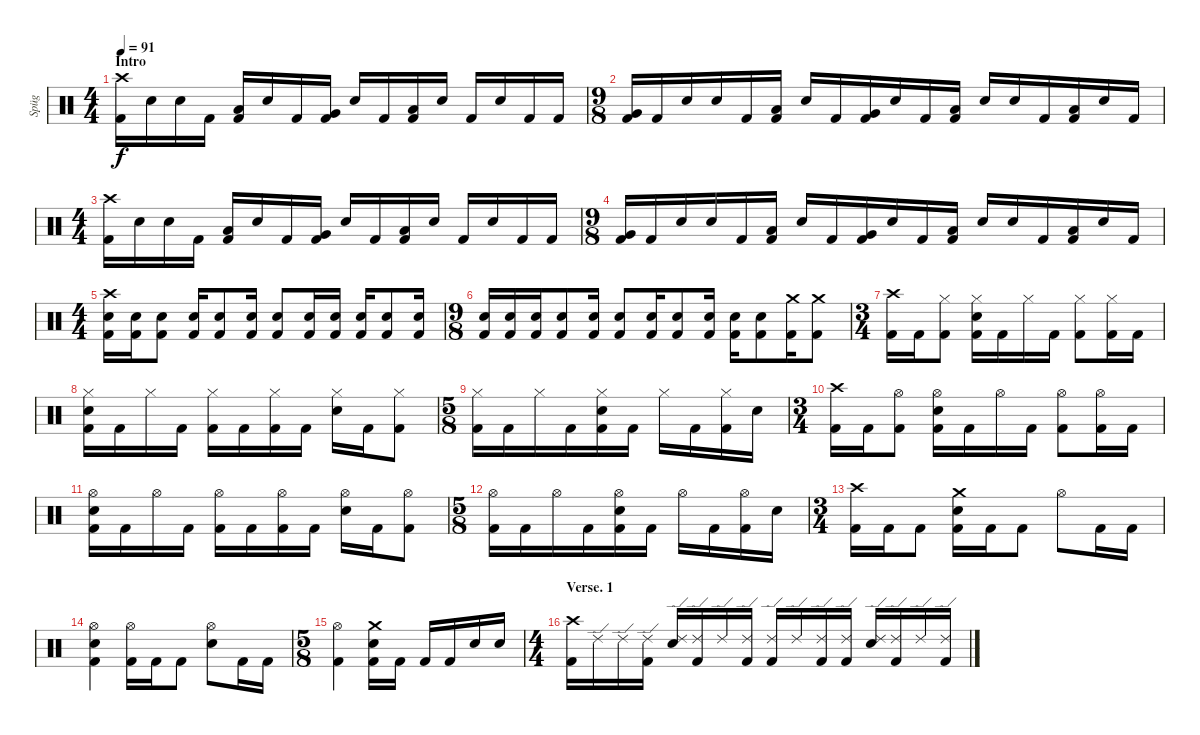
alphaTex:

\track ("Spüg" "Spüg") {instrument percussion}
\staff {score}
\articulation defaults
\ts (4 4)
\section ("" "Intro")
\tempo 91
\clef neutral
\ks c
("Crash high (hit)" "Kick (hit) 2").16{dy f} "Electric Snare (hit)".16 "Electric Snare (hit)".16 "Kick (hit) 2".16 ("Low Tom (hit)" "Kick (hit) 2").16 "Electric Snare (hit)".16 "Kick (hit) 2".16 ("Very Low Tom (hit)" "Kick (hit) 2").16 "Electric Snare (hit)".16 "Kick (hit) 2".16 ("Low Tom (hit)" "Kick (hit) 2").16 "Electric Snare (hit)".16 "Kick (hit) 2".16 "Electric Snare (hit)".16 "Kick (hit) 2".16 "Kick (hit) 2".16 |
\ts (9 8)
("Very Low Tom (hit)" "Kick (hit) 2").16 "Kick (hit) 2".16 "Electric Snare (hit)".16 "Electric Snare (hit)".16 "Kick (hit) 2".16 ("Low Floor Tom (hit)" "Kick (hit) 2").16 "Electric Snare (hit)".16 "Kick (hit) 2".16 ("Very Low Tom (hit)" "Kick (hit) 2").16 "Electric Snare (hit)".16 "Kick (hit) 2".16 ("Low Tom (hit)" "Kick (hit) 2").16 "Electric Snare (hit)".16 "Electric Snare (hit)".16 "Kick (hit) 2".16 ("Low Floor Tom (hit)" "Kick (hit) 2").16 "Electric Snare (hit)".16 "Kick (hit) 2".16 |
\ts (4 4)
("Crash high (hit)" "Kick (hit) 2").16 "Electric Snare (hit)".16 "Electric Snare (hit)".16 "Kick (hit) 2".16 ("Low Tom (hit)" "Kick (hit) 2").16 "Electric Snare (hit)".16 "Kick (hit) 2".16 ("Very Low Tom (hit)" "Kick (hit) 2").16 "Electric Snare (hit)".16 "Kick (hit) 2".16 ("Low Tom (hit)" "Kick (hit) 2").16 "Electric Snare (hit)".16 "Kick (hit) 2".16 "Electric Snare (hit)".16 "Kick (hit) 2".16 "Kick (hit) 2".16 |
\ts (9 8)
("Very Low Tom (hit)" "Kick (hit) 2").16 "Kick (hit) 2".16 "Electric Snare (hit)".16 "Electric Snare (hit)".16 "Kick (hit) 2".16 ("Low Floor Tom (hit)" "Kick (hit) 2").16 "Electric Snare (hit)".16 "Kick (hit) 2".16 ("Very Low Tom (hit)" "Kick (hit) 2").16 "Electric Snare (hit)".16 "Kick (hit) 2".16 ("Low Tom (hit)" "Kick (hit) 2").16 "Electric Snare (hit)".16 "Electric Snare (hit)".16 "Kick (hit) 2".16 ("Low Floor Tom (hit)" "Kick (hit) 2").16 "Electric Snare (hit)".16 "Kick (hit) 2".16 |
\ts (4 4)
("Crash high (hit)" "Electric Snare (hit)" "Kick (hit) 2").16 ("Electric Snare (hit)" "Kick (hit) 2").16 ("Electric Snare (hit)" "Kick (hit) 2").8 ("Electric Snare (hit)" "Kick (hit) 2").16 ("Electric Snare (hit)" "Kick (hit) 2").8 ("Electric Snare (hit)" "Kick (hit) 2").16 ("Electric Snare (hit)" "Kick (hit) 2").8 ("Electric Snare (hit)" "Kick (hit) 2").16 ("Electric Snare (hit)" "Kick (hit) 2").16 ("Electric Snare (hit)" "Kick (hit) 2").16 ("Electric Snare (hit)" "Kick (hit) 2").8 ("Electric Snare (hit)" "Kick (hit) 2").16 |
\ts (9 8)
("Electric Snare (hit)" "Kick (hit) 2").16 ("Electric Snare (hit)" "Kick (hit) 2").16 ("Electric Snare (hit)" "Kick (hit) 2").16 ("Electric Snare (hit)" "Kick (hit) 2").8 ("Electric Snare (hit)" "Kick (hit) 2").16 ("Electric Snare (hit)" "Kick (hit) 2").8 ("Electric Snare (hit)" "Kick (hit) 2").16 ("Electric Snare (hit)" "Kick (hit) 2").8 ("Electric Snare (hit)" "Kick (hit) 2").16 ("Electric Snare (hit)" "Kick (hit) 2").16 ("Electric Snare (hit)" "Kick (hit) 2").8 ("Crash medium (hit)" "Kick (hit) 2").16 ("Crash medium (hit)" "Kick (hit) 2").8 |
\ts (3 4)
("Crash high (hit)" "Kick (hit) 2").16 "Kick (hit) 2".16 ("Hi-Hat (closed)" "Kick (hit) 2").8 ("Hi-Hat (closed)" "Electric Snare (hit)" "Kick (hit) 2").16 "Kick (hit) 2".16 "Hi-Hat (closed)".16 "Kick (hit) 2".16 ("Hi-Hat (closed)" "Kick (hit) 2").8 ("Hi-Hat (closed)" "Kick (hit) 2").16 "Kick (hit) 2".16 |
("Hi-Hat (closed)" "Electric Snare (hit)" "Kick (hit) 2").16 "Kick (hit) 2".16 "Hi-Hat (closed)".16 "Kick (hit) 2".16 ("Hi-Hat (closed)" "Kick (hit) 2").16 "Kick (hit) 2".16 ("Hi-Hat (closed)" "Kick (hit) 2").16 "Kick (hit) 2".16 ("Hi-Hat (closed)" "Electric Snare (hit)").16 "Kick (hit) 2".16 ("Hi-Hat (closed)" "Kick (hit) 2").8 |
\ts (5 8)
("Hi-Hat (closed)" "Kick (hit) 2").16 "Kick (hit) 2".16 "Hi-Hat (closed)".16 "Kick (hit) 2".16 ("Hi-Hat (closed)" "Electric Snare (hit)" "Kick (hit) 2").16 "Kick (hit) 2".16 "Hi-Hat (closed)".16 "Kick (hit) 2".16 ("Hi-Hat (closed)" "Kick (hit) 2").16 "Electric Snare (hit)".16 |
\ts (3 4)
("Crash high (hit)" "Kick (hit) 2").16 "Kick (hit) 2".16 ("Hi-Hat (open)" "Kick (hit) 2").8 ("Hi-Hat (open)" "Electric Snare (hit)" "Kick (hit) 2").16 "Kick (hit) 2".16 "Hi-Hat (open)".16 "Kick (hit) 2".16 ("Hi-Hat (open)" "Kick (hit) 2").8 ("Hi-Hat (open)" "Kick (hit) 2").16 "Kick (hit) 2".16 |
("Hi-Hat (open)" "Electric Snare (hit)" "Kick (hit) 2").16 "Kick (hit) 2".16 "Hi-Hat (open)".16 "Kick (hit) 2".16 ("Hi-Hat (open)" "Kick (hit) 2").16 "Kick (hit) 2".16 ("Hi-Hat (open)" "Kick (hit) 2").16 "Kick (hit) 2".16 ("Hi-Hat (open)" "Electric Snare (hit)").16 "Kick (hit) 2".16 ("Hi-Hat (open)" "Kick (hit) 2").8 |
\ts (5 8)
("Hi-Hat (open)" "Kick (hit) 2").16 "Kick (hit) 2".16 "Hi-Hat (open)".16 "Kick (hit) 2".16 ("Hi-Hat (open)" "Electric Snare (hit)" "Kick (hit) 2").16 "Kick (hit) 2".16 "Hi-Hat (open)".16 "Kick (hit) 2".16 ("Hi-Hat (open)" "Kick (hit) 2").16 "Electric Snare (hit)".16 |
\ts (3 4)
("Crash high (hit)" "Kick (hit) 2").16 "Kick (hit) 2".16 "Kick (hit) 2".8 ("Crash medium (hit)" "Electric Snare (hit)" "Kick (hit) 2").16 "Kick (hit) 2".16 "Kick (hit) 2".8 "Hi-Hat (open)".8 "Kick (hit) 2".16 "Kick (hit) 2".16 |
("Hi-Hat (open)" "Electric Snare (hit)" "Kick (hit) 2").4 ("Hi-Hat (open)" "Kick (hit) 2").16 "Kick (hit) 2".16 "Kick (hit) 2".8 ("Hi-Hat (open)" "Electric Snare (hit)").8 "Kick (hit) 2".16 "Kick (hit) 2".16 |
\ts (5 8)
("Hi-Hat (open)" "Kick (hit) 2").4 ("Crash medium (hit)" "Electric Snare (hit)" "Kick (hit) 2").16 "Kick (hit) 2".16 "Kick (hit) 2".16 "Kick (hit) 2".16 "Electric Snare (hit)".16 "Electric Snare (hit)".16 |
\ts (4 4)
\section ("" "Verse. 1 ")
("Crash high (hit)" "Kick (hit) 2").16 "Ride (edge) 2".16 "Ride (edge) 2".16 ("Ride (edge) 2" "Kick (hit) 2").16 ("Ride (edge) 2" "Electric Snare (hit)").16 ("Ride (edge) 2" "Kick (hit) 2").16 "Ride (edge) 2".16 ("Ride (edge) 2" "Kick (hit) 2").16 ("Ride (edge) 2" "Kick (hit) 2").16 "Ride (edge) 2".16 ("Ride (edge) 2" "Kick (hit) 2").16 ("Ride (edge) 2" "Kick (hit) 2").16 ("Ride (edge) 2" "Electric Snare (hit)").16 ("Ride (edge) 2" "Kick (hit) 2").16 "Ride (edge) 2".16 ("Ride (edge) 2" "Kick (hit) 2").16
